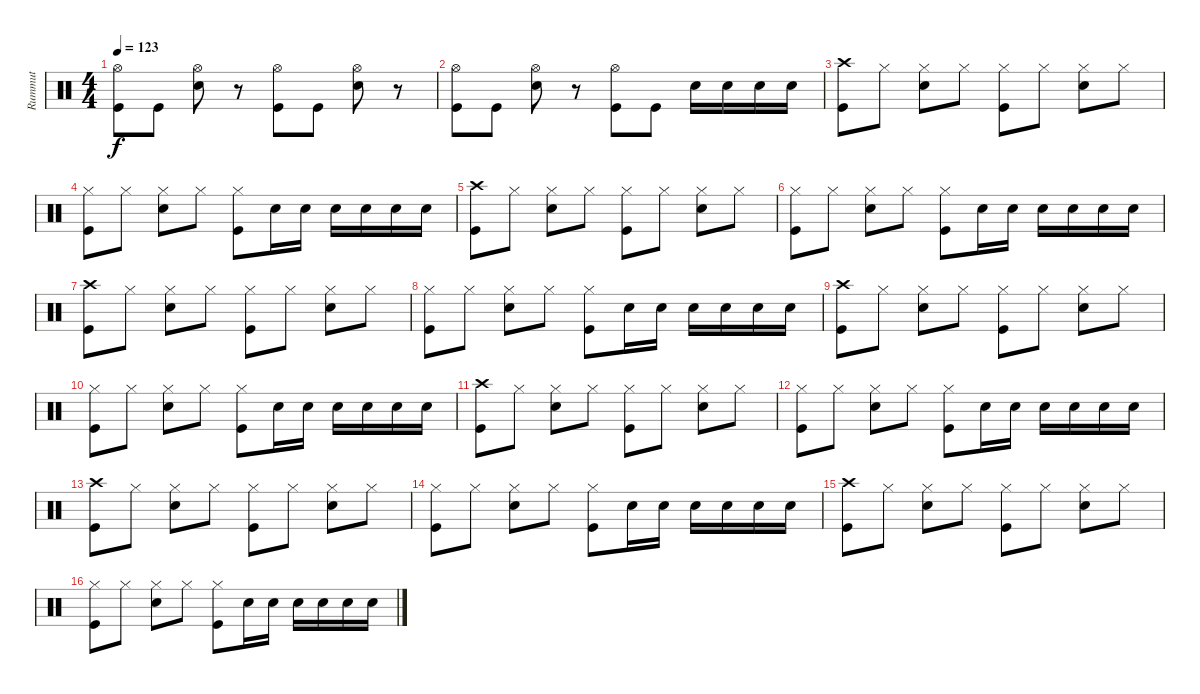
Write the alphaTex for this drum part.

\track ("Rummut" "Rummut") {instrument percussion}
\staff {score}
\articulation defaults
\ts (4 4)
\tempo 123
\clef neutral
\ks c
("Hi-Hat (open)" "Kick (hit)").8{dy f} "Kick (hit)".8 ("Hi-Hat (open)" "Snare (hit) 2").8 r.8 ("Hi-Hat (open)" "Kick (hit)").8 "Kick (hit)".8 ("Hi-Hat (open)" "Snare (hit) 2").8 r.8 |
("Hi-Hat (open)" "Kick (hit)").8 "Kick (hit)".8 ("Hi-Hat (open)" "Snare (hit) 2").8 r.8 ("Hi-Hat (open)" "Kick (hit)").8 "Kick (hit)".8 "Snare (hit) 2".16 "Snare (hit) 2".16 "Snare (hit) 2".16 "Snare (hit) 2".16 |
("Crash high (hit)" "Kick (hit)").8 "Hi-Hat (closed)".8 ("Hi-Hat (closed)" "Snare (hit) 2").8 "Hi-Hat (closed)".8 ("Hi-Hat (closed)" "Kick (hit)").8 "Hi-Hat (closed)".8 ("Hi-Hat (closed)" "Snare (hit) 2").8 "Hi-Hat (closed)".8 |
("Hi-Hat (closed)" "Kick (hit)").8 "Hi-Hat (closed)".8 ("Hi-Hat (closed)" "Snare (hit) 2").8 "Hi-Hat (closed)".8 ("Hi-Hat (closed)" "Kick (hit)").8 "Snare (hit) 2".16 "Snare (hit) 2".16 "Snare (hit) 2".16 "Snare (hit) 2".16 "Snare (hit) 2".16 "Snare (hit) 2".16 |
("Crash high (hit)" "Kick (hit)").8 "Hi-Hat (closed)".8 ("Hi-Hat (closed)" "Snare (hit) 2").8 "Hi-Hat (closed)".8 ("Hi-Hat (closed)" "Kick (hit)").8 "Hi-Hat (closed)".8 ("Hi-Hat (closed)" "Snare (hit) 2").8 "Hi-Hat (closed)".8 |
("Hi-Hat (closed)" "Kick (hit)").8 "Hi-Hat (closed)".8 ("Hi-Hat (closed)" "Snare (hit) 2").8 "Hi-Hat (closed)".8 ("Hi-Hat (closed)" "Kick (hit)").8 "Snare (hit) 2".16 "Snare (hit) 2".16 "Snare (hit) 2".16 "Snare (hit) 2".16 "Snare (hit) 2".16 "Snare (hit) 2".16 |
("Crash high (hit)" "Kick (hit)").8 "Hi-Hat (closed)".8 ("Hi-Hat (closed)" "Snare (hit) 2").8 "Hi-Hat (closed)".8 ("Hi-Hat (closed)" "Kick (hit)").8 "Hi-Hat (closed)".8 ("Hi-Hat (closed)" "Snare (hit) 2").8 "Hi-Hat (closed)".8 |
("Hi-Hat (closed)" "Kick (hit)").8 "Hi-Hat (closed)".8 ("Hi-Hat (closed)" "Snare (hit) 2").8 "Hi-Hat (closed)".8 ("Hi-Hat (closed)" "Kick (hit)").8 "Snare (hit) 2".16 "Snare (hit) 2".16 "Snare (hit) 2".16 "Snare (hit) 2".16 "Snare (hit) 2".16 "Snare (hit) 2".16 |
("Crash high (hit)" "Kick (hit)").8 "Hi-Hat (closed)".8 ("Hi-Hat (closed)" "Snare (hit) 2").8 "Hi-Hat (closed)".8 ("Hi-Hat (closed)" "Kick (hit)").8 "Hi-Hat (closed)".8 ("Hi-Hat (closed)" "Snare (hit) 2").8 "Hi-Hat (closed)".8 |
("Hi-Hat (closed)" "Kick (hit)").8 "Hi-Hat (closed)".8 ("Hi-Hat (closed)" "Snare (hit) 2").8 "Hi-Hat (closed)".8 ("Hi-Hat (closed)" "Kick (hit)").8 "Snare (hit) 2".16 "Snare (hit) 2".16 "Snare (hit) 2".16 "Snare (hit) 2".16 "Snare (hit) 2".16 "Snare (hit) 2".16 |
("Crash high (hit)" "Kick (hit)").8 "Hi-Hat (closed)".8 ("Hi-Hat (closed)" "Snare (hit) 2").8 "Hi-Hat (closed)".8 ("Hi-Hat (closed)" "Kick (hit)").8 "Hi-Hat (closed)".8 ("Hi-Hat (closed)" "Snare (hit) 2").8 "Hi-Hat (closed)".8 |
("Hi-Hat (closed)" "Kick (hit)").8 "Hi-Hat (closed)".8 ("Hi-Hat (closed)" "Snare (hit) 2").8 "Hi-Hat (closed)".8 ("Hi-Hat (closed)" "Kick (hit)").8 "Snare (hit) 2".16 "Snare (hit) 2".16 "Snare (hit) 2".16 "Snare (hit) 2".16 "Snare (hit) 2".16 "Snare (hit) 2".16 |
("Crash high (hit)" "Kick (hit)").8 "Hi-Hat (closed)".8 ("Hi-Hat (closed)" "Snare (hit) 2").8 "Hi-Hat (closed)".8 ("Hi-Hat (closed)" "Kick (hit)").8 "Hi-Hat (closed)".8 ("Hi-Hat (closed)" "Snare (hit) 2").8 "Hi-Hat (closed)".8 |
("Hi-Hat (closed)" "Kick (hit)").8 "Hi-Hat (closed)".8 ("Hi-Hat (closed)" "Snare (hit) 2").8 "Hi-Hat (closed)".8 ("Hi-Hat (closed)" "Kick (hit)").8 "Snare (hit) 2".16 "Snare (hit) 2".16 "Snare (hit) 2".16 "Snare (hit) 2".16 "Snare (hit) 2".16 "Snare (hit) 2".16 |
("Crash high (hit)" "Kick (hit)").8 "Hi-Hat (closed)".8 ("Hi-Hat (closed)" "Snare (hit) 2").8 "Hi-Hat (closed)".8 ("Hi-Hat (closed)" "Kick (hit)").8 "Hi-Hat (closed)".8 ("Hi-Hat (closed)" "Snare (hit) 2").8 "Hi-Hat (closed)".8 |
("Hi-Hat (closed)" "Kick (hit)").8 "Hi-Hat (closed)".8 ("Hi-Hat (closed)" "Snare (hit) 2").8 "Hi-Hat (closed)".8 ("Hi-Hat (closed)" "Kick (hit)").8 "Snare (hit) 2".16 "Snare (hit) 2".16 "Snare (hit) 2".16 "Snare (hit) 2".16 "Snare (hit) 2".16 "Snare (hit) 2".16
